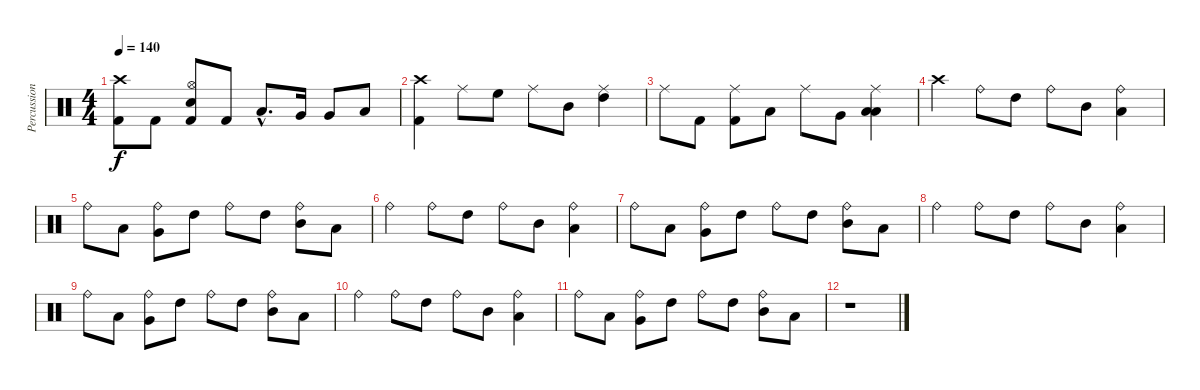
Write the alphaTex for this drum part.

\track ("Percussion" "Percussion") {instrument percussion}
\staff {score}
\articulation defaults
\ts (4 4)
\tempo 140
\clef neutral
\ks c
("Crash high (hit)" "Kick (hit) 2").8{dy f} "Kick (hit) 2".8 ("Hi-Hat (open)" "Snare (hit) 2" "Kick (hit) 2").8 "Kick (hit) 2".8 "Low Tom (hit)"{hac}.8{d} "Very Low Tom (hit)".16 "Very Low Tom (hit)".8 "Low Floor Tom (hit)".8 |
("Crash high (hit)" "Kick (hit) 2").4 "Ride (middle)".8 "High Floor Tom (hit)".8 "Ride (middle)".8 "Mid Tom (hit)".8 ("Ride (middle)" "High Tom (hit)").4 |
"Ride (middle)".8 "Kick (hit) 2".8 ("Ride (middle)" "Kick (hit) 2").8 "Low Tom (hit)".8 "Ride (middle)".8 "Very Low Tom (hit)".8 ("Ride (middle)" "Low Floor Tom (hit)" "Low Floor Tom (hit)").4 |
"Crash high (hit)".4 "Ride (bell)".8 "High Tom (hit)".8 "Ride (bell)".8 "Mid Tom (hit)".8 ("Ride (bell)" "Low Tom (hit)").4 |
"Ride (bell)".8 "Low Tom (hit)".8 ("Ride (bell)" "Very Low Tom (hit)").8 "High Tom (hit)".8 "Ride (bell)".8 "High Tom (hit)".8 ("Ride (bell)" "Mid Tom (hit)").8 "Low Tom (hit)".8 |
"Ride (bell)".4 "Ride (bell)".8 "High Tom (hit)".8 "Ride (bell)".8 "Mid Tom (hit)".8 ("Ride (bell)" "Low Tom (hit)").4 |
"Ride (bell)".8 "Low Tom (hit)".8 ("Ride (bell)" "Very Low Tom (hit)").8 "High Tom (hit)".8 "Ride (bell)".8 "High Tom (hit)".8 ("Ride (bell)" "Mid Tom (hit)").8 "Low Tom (hit)".8 |
"Ride (bell)".4 "Ride (bell)".8 "High Tom (hit)".8 "Ride (bell)".8 "Mid Tom (hit)".8 ("Ride (bell)" "Low Tom (hit)").4 |
"Ride (bell)".8 "Low Tom (hit)".8 ("Ride (bell)" "Very Low Tom (hit)").8 "High Tom (hit)".8 "Ride (bell)".8 "High Tom (hit)".8 ("Ride (bell)" "Mid Tom (hit)").8 "Low Tom (hit)".8 |
"Ride (bell)".4 "Ride (bell)".8 "High Tom (hit)".8 "Ride (bell)".8 "Mid Tom (hit)".8 ("Ride (bell)" "Low Tom (hit)").4 |
"Ride (bell)".8 "Low Tom (hit)".8 ("Ride (bell)" "Very Low Tom (hit)").8 "High Tom (hit)".8 "Ride (bell)".8 "High Tom (hit)".8 ("Ride (bell)" "Mid Tom (hit)").8 "Low Tom (hit)".8 |
r.1
